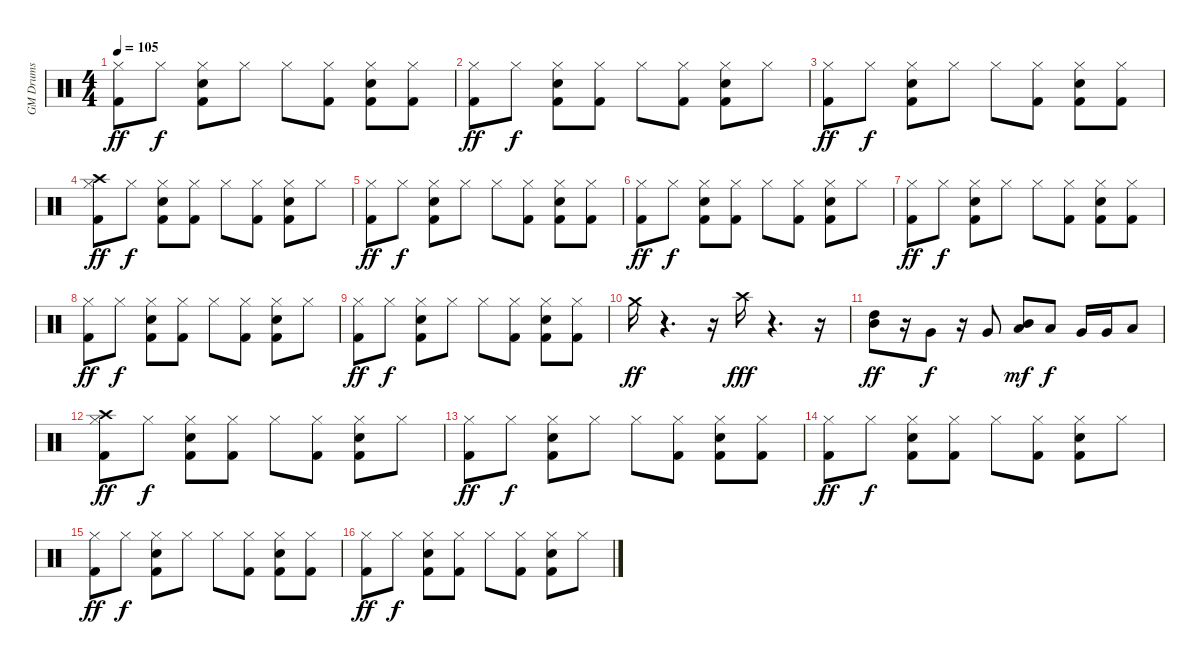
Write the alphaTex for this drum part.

\track ("GM Drums" "GM Drums") {instrument percussion}
\staff {score}
\articulation defaults
\ts (4 4)
\tempo 105
\clef neutral
\ks c
("Kick (hit) 2" "Hi-Hat (closed)").8{dy ff} "Hi-Hat (closed)".8{dy f} ("Kick (hit) 2" "Electric Snare (hit)" "Hi-Hat (closed)").8 "Hi-Hat (closed)".8 "Hi-Hat (closed)".8 ("Kick (hit) 2" "Hi-Hat (closed)").8 ("Kick (hit) 2" "Electric Snare (hit)" "Hi-Hat (closed)").8 ("Kick (hit) 2" "Hi-Hat (closed)").8 |
("Kick (hit) 2" "Hi-Hat (closed)").8{dy ff} "Hi-Hat (closed)".8{dy f} ("Kick (hit) 2" "Electric Snare (hit)" "Hi-Hat (closed)").8 ("Kick (hit) 2" "Hi-Hat (closed)").8 "Hi-Hat (closed)".8 ("Kick (hit) 2" "Hi-Hat (closed)").8 ("Kick (hit) 2" "Electric Snare (hit)" "Hi-Hat (closed)").8 "Hi-Hat (closed)".8 |
("Kick (hit) 2" "Hi-Hat (closed)").8{dy ff} "Hi-Hat (closed)".8{dy f} ("Kick (hit) 2" "Electric Snare (hit)" "Hi-Hat (closed)").8 "Hi-Hat (closed)".8 "Hi-Hat (closed)".8 ("Kick (hit) 2" "Hi-Hat (closed)").8 ("Kick (hit) 2" "Electric Snare (hit)" "Hi-Hat (closed)").8 ("Kick (hit) 2" "Hi-Hat (closed)").8 |
("Crash high (hit)" "Kick (hit) 2" "Hi-Hat (closed)").8{dy ff} "Hi-Hat (closed)".8{dy f} ("Kick (hit) 2" "Electric Snare (hit)" "Hi-Hat (closed)").8 ("Kick (hit) 2" "Hi-Hat (closed)").8 "Hi-Hat (closed)".8 ("Kick (hit) 2" "Hi-Hat (closed)").8 ("Kick (hit) 2" "Electric Snare (hit)" "Hi-Hat (closed)").8 "Hi-Hat (closed)".8 |
("Kick (hit) 2" "Hi-Hat (closed)").8{dy ff} "Hi-Hat (closed)".8{dy f} ("Kick (hit) 2" "Electric Snare (hit)" "Hi-Hat (closed)").8 "Hi-Hat (closed)".8 "Hi-Hat (closed)".8 ("Kick (hit) 2" "Hi-Hat (closed)").8 ("Kick (hit) 2" "Electric Snare (hit)" "Hi-Hat (closed)").8 ("Kick (hit) 2" "Hi-Hat (closed)").8 |
("Kick (hit) 2" "Hi-Hat (closed)").8{dy ff} "Hi-Hat (closed)".8{dy f} ("Kick (hit) 2" "Electric Snare (hit)" "Hi-Hat (closed)").8 ("Kick (hit) 2" "Hi-Hat (closed)").8 "Hi-Hat (closed)".8 ("Kick (hit) 2" "Hi-Hat (closed)").8 ("Kick (hit) 2" "Electric Snare (hit)" "Hi-Hat (closed)").8 "Hi-Hat (closed)".8 |
("Kick (hit) 2" "Hi-Hat (closed)").8{dy ff} "Hi-Hat (closed)".8{dy f} ("Kick (hit) 2" "Electric Snare (hit)" "Hi-Hat (closed)").8 "Hi-Hat (closed)".8 "Hi-Hat (closed)".8 ("Kick (hit) 2" "Hi-Hat (closed)").8 ("Kick (hit) 2" "Electric Snare (hit)" "Hi-Hat (closed)").8 ("Kick (hit) 2" "Hi-Hat (closed)").8 |
("Kick (hit) 2" "Hi-Hat (closed)").8{dy ff} "Hi-Hat (closed)".8{dy f} ("Kick (hit) 2" "Electric Snare (hit)" "Hi-Hat (closed)").8 ("Kick (hit) 2" "Hi-Hat (closed)").8 "Hi-Hat (closed)".8 ("Kick (hit) 2" "Hi-Hat (closed)").8 ("Kick (hit) 2" "Electric Snare (hit)" "Hi-Hat (closed)").8 "Hi-Hat (closed)".8 |
("Kick (hit) 2" "Hi-Hat (closed)").8{dy ff} "Hi-Hat (closed)".8{dy f} ("Kick (hit) 2" "Electric Snare (hit)" "Hi-Hat (closed)").8 "Hi-Hat (closed)".8 "Hi-Hat (closed)".8 ("Kick (hit) 2" "Hi-Hat (closed)").8 ("Kick (hit) 2" "Electric Snare (hit)" "Hi-Hat (closed)").8 ("Kick (hit) 2" "Hi-Hat (closed)").8 |
"Crash medium (hit)".16{dy ff} r.4{d} r.16 "Crash high (hit)".16{dy fff} r.4{d} r.16 |
("Mid Tom (hit)" "High Tom (hit)").8{dy ff} r.16 "Very Low Tom (hit)".8{dy f} r.16 "Very Low Tom (hit)".8 ("Low Tom (hit)" "Mid Tom (hit)").8{dy mf} "Low Tom (hit)".8{dy f} "Very Low Tom (hit)".16 "Very Low Tom (hit)".16 "Low Floor Tom (hit)".8 |
("Crash high (hit)" "Kick (hit) 2" "Hi-Hat (closed)").8{dy ff} "Hi-Hat (closed)".8{dy f} ("Kick (hit) 2" "Electric Snare (hit)" "Hi-Hat (closed)").8 ("Kick (hit) 2" "Hi-Hat (closed)").8 "Hi-Hat (closed)".8 ("Kick (hit) 2" "Hi-Hat (closed)").8 ("Kick (hit) 2" "Electric Snare (hit)" "Hi-Hat (closed)").8 "Hi-Hat (closed)".8 |
("Kick (hit) 2" "Hi-Hat (closed)").8{dy ff} "Hi-Hat (closed)".8{dy f} ("Kick (hit) 2" "Electric Snare (hit)" "Hi-Hat (closed)").8 "Hi-Hat (closed)".8 "Hi-Hat (closed)".8 ("Kick (hit) 2" "Hi-Hat (closed)").8 ("Kick (hit) 2" "Electric Snare (hit)" "Hi-Hat (closed)").8 ("Kick (hit) 2" "Hi-Hat (closed)").8 |
("Kick (hit) 2" "Hi-Hat (closed)").8{dy ff} "Hi-Hat (closed)".8{dy f} ("Kick (hit) 2" "Electric Snare (hit)" "Hi-Hat (closed)").8 ("Kick (hit) 2" "Hi-Hat (closed)").8 "Hi-Hat (closed)".8 ("Kick (hit) 2" "Hi-Hat (closed)").8 ("Kick (hit) 2" "Electric Snare (hit)" "Hi-Hat (closed)").8 "Hi-Hat (closed)".8 |
("Kick (hit) 2" "Hi-Hat (closed)").8{dy ff} "Hi-Hat (closed)".8{dy f} ("Kick (hit) 2" "Electric Snare (hit)" "Hi-Hat (closed)").8 "Hi-Hat (closed)".8 "Hi-Hat (closed)".8 ("Kick (hit) 2" "Hi-Hat (closed)").8 ("Kick (hit) 2" "Electric Snare (hit)" "Hi-Hat (closed)").8 ("Kick (hit) 2" "Hi-Hat (closed)").8 |
("Kick (hit) 2" "Hi-Hat (closed)").8{dy ff} "Hi-Hat (closed)".8{dy f} ("Kick (hit) 2" "Electric Snare (hit)" "Hi-Hat (closed)").8 ("Kick (hit) 2" "Hi-Hat (closed)").8 "Hi-Hat (closed)".8 ("Kick (hit) 2" "Hi-Hat (closed)").8 ("Kick (hit) 2" "Electric Snare (hit)" "Hi-Hat (closed)").8 "Hi-Hat (closed)".8
